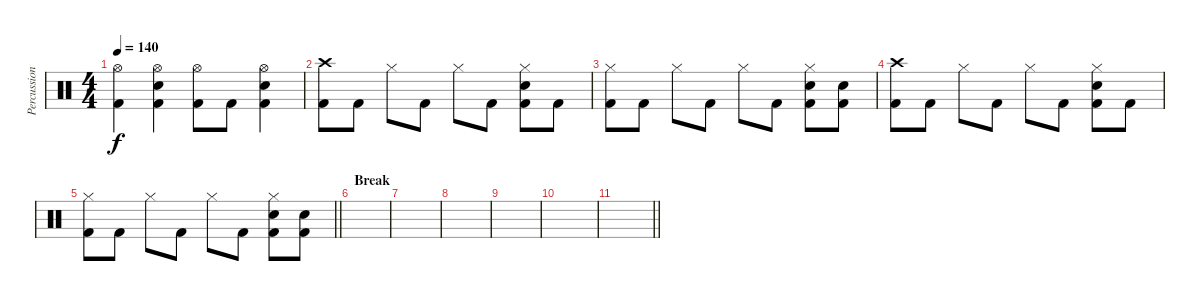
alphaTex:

\track ("Percussions" "Percussion") {instrument percussion}
\staff {score}
\articulation defaults
\ts (4 4)
\tempo 140
\clef neutral
\ks c
("Hi-Hat (open)" "Kick (hit) 2").4{dy f} ("Hi-Hat (open)" "Electric Snare (hit)" "Kick (hit) 2").4 ("Hi-Hat (open)" "Kick (hit) 2").8 "Kick (hit) 2".8 ("Hi-Hat (open)" "Electric Snare (hit)" "Kick (hit) 2").4 |
("Crash high (hit)" "Kick (hit) 2").8 "Kick (hit) 2".8 "Hi-Hat (closed)".8 "Kick (hit) 2".8 "Hi-Hat (closed)".8 "Kick (hit) 2".8 ("Hi-Hat (closed)" "Electric Snare (hit)" "Kick (hit) 2").8 "Kick (hit) 2".8 |
("Hi-Hat (closed)" "Kick (hit) 2").8 "Kick (hit) 2".8 "Hi-Hat (closed)".8 "Kick (hit) 2".8 "Hi-Hat (closed)".8 "Kick (hit) 2".8 ("Hi-Hat (closed)" "Electric Snare (hit)" "Kick (hit) 2").8 ("Electric Snare (hit)" "Kick (hit) 2").8 |
("Crash high (hit)" "Kick (hit) 2").8 "Kick (hit) 2".8 "Hi-Hat (closed)".8 "Kick (hit) 2".8 "Hi-Hat (closed)".8 "Kick (hit) 2".8 ("Hi-Hat (closed)" "Electric Snare (hit)" "Kick (hit) 2").8 "Kick (hit) 2".8 |
\barLineRight lightlight
("Hi-Hat (closed)" "Kick (hit) 2").8 "Kick (hit) 2".8 "Hi-Hat (closed)".8 "Kick (hit) 2".8 "Hi-Hat (closed)".8 "Kick (hit) 2".8 ("Hi-Hat (closed)" "Electric Snare (hit)" "Kick (hit) 2").8 ("Electric Snare (hit)" "Kick (hit) 2").8 |
\section ("" "Break")
|
|
|
|
|
\barLineRight lightlight
